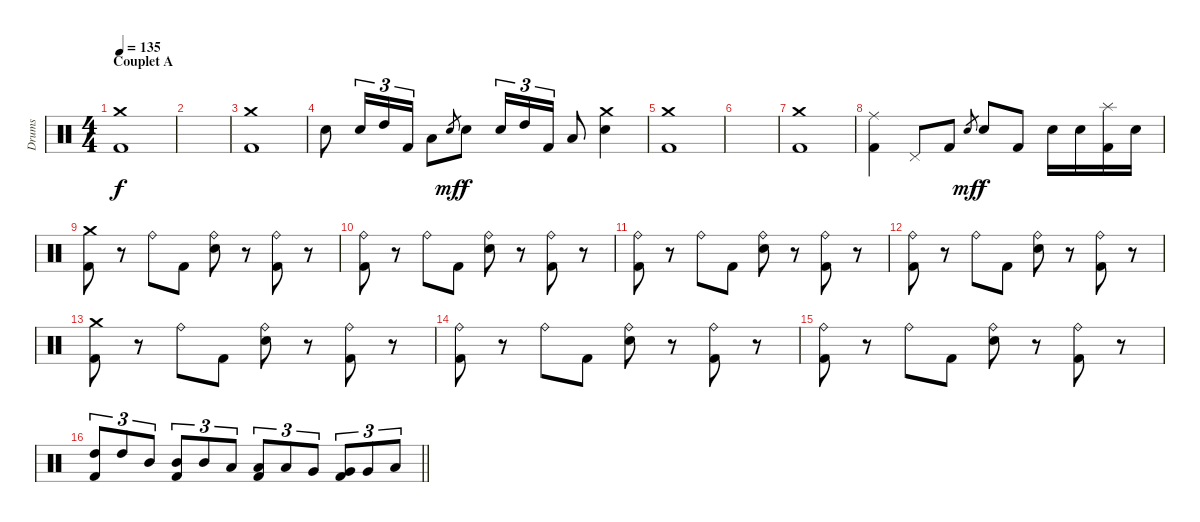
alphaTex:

\track ("Drums" "Drums") {instrument percussion}
\staff {score}
\articulation defaults
\ts (4 4)
\section ("" "Couplet A")
\tempo 135
\clef neutral
\ks c
("Crash medium (hit)" "Kick (hit) 2").1{dy f} |
|
("Crash medium (hit)" "Kick (hit) 2").1 |
"Snare (hit) 2".8 "Snare (hit) 2".16{tu (3 2)} "High Tom (hit)".16{tu (3 2)} "Kick (hit) 2".16{tu (3 2)} "Low Floor Tom (hit)".8 "Snare (hit) 2".8{gr dy mf} "Snare (hit) 2".8{dy f} "Snare (hit) 2".16{tu (3 2)} "High Tom (hit)".16{tu (3 2)} "Kick (hit) 2".16{tu (3 2)} "Low Floor Tom (hit)".8 ("Crash medium (hit)" "Snare (hit) 2").4 |
("Crash medium (hit)" "Kick (hit) 2").1 |
|
("Crash medium (hit)" "Kick (hit) 2").1 |
("Ride (middle)" "Kick (hit) 2").4 "Pedal Hi-Hat (hit)".8 "Kick (hit) 2".8 "Snare (hit) 2".8{gr dy mf} "Snare (hit) 2".8{dy f} "Kick (hit) 2".8 "Snare (hit) 2".16 "Snare (hit) 2".16 ("Splash (hit)" "Kick (hit) 2").16 "Snare (hit) 2".16 |
("Crash medium (hit)" "Kick (hit) 2").8 r.8 "Ride (bell)".8 "Kick (hit) 2".8 ("Ride (bell)" "Snare (hit) 2").8 r.8 ("Ride (bell)" "Kick (hit) 2").8 r.8 |
("Ride (bell)" "Kick (hit) 2").8 r.8 "Ride (bell)".8 "Kick (hit) 2".8 ("Ride (bell)" "Snare (hit) 2").8 r.8 ("Ride (bell)" "Kick (hit) 2").8 r.8 |
("Ride (bell)" "Kick (hit) 2").8 r.8 "Ride (bell)".8 "Kick (hit) 2".8 ("Ride (bell)" "Snare (hit) 2").8 r.8 ("Ride (bell)" "Kick (hit) 2").8 r.8 |
("Ride (bell)" "Kick (hit) 2").8 r.8 "Ride (bell)".8 "Kick (hit) 2".8 ("Ride (bell)" "Snare (hit) 2").8 r.8 ("Ride (bell)" "Kick (hit) 2").8 r.8 |
("Crash medium (hit)" "Kick (hit) 2").8 r.8 "Ride (bell)".8 "Kick (hit) 2".8 ("Ride (bell)" "Snare (hit) 2").8 r.8 ("Ride (bell)" "Kick (hit) 2").8 r.8 |
("Ride (bell)" "Kick (hit) 2").8 r.8 "Ride (bell)".8 "Kick (hit) 2".8 ("Ride (bell)" "Snare (hit) 2").8 r.8 ("Ride (bell)" "Kick (hit) 2").8 r.8 |
("Ride (bell)" "Kick (hit) 2").8 r.8 "Ride (bell)".8 "Kick (hit) 2".8 ("Ride (bell)" "Snare (hit) 2").8 r.8 ("Ride (bell)" "Kick (hit) 2").8 r.8 |
\barLineRight lightlight
("High Tom (hit)" "Kick (hit) 2").8{tu (3 2)} "High Tom (hit)".8{tu (3 2)} "Mid Tom (hit)".8{tu (3 2)} ("Mid Tom (hit)" "Kick (hit) 2").8{tu (3 2)} "Mid Tom (hit)".8{tu (3 2)} "Low Tom (hit)".8{tu (3 2)} ("Low Tom (hit)" "Kick (hit) 2").8{tu (3 2)} "Low Tom (hit)".8{tu (3 2)} "Very Low Tom (hit)".8{tu (3 2)} ("Very Low Tom (hit)" "Kick (hit) 2").8{tu (3 2)} "Very Low Tom (hit)".8{tu (3 2)} "Low Floor Tom (hit)".8{tu (3 2)}
